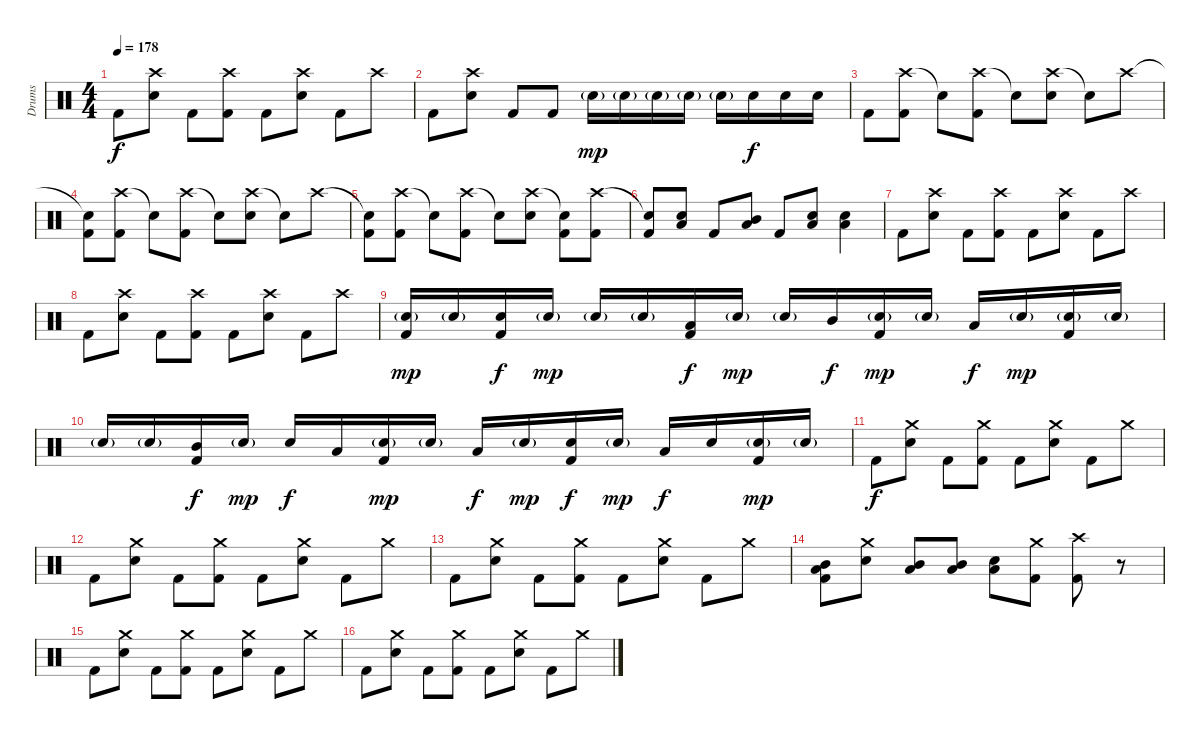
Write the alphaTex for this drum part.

\track ("Drums" "Drums") {instrument percussion}
\staff {score}
\articulation defaults
\ts (4 4)
\tempo 178
\clef neutral
\ks c "Kick (hit) 2".8{dy f}
("Crash high (hit)" "Electric Snare (hit)").8 "Kick (hit) 2".8 ("Crash high (hit)" "Kick (hit) 2").8 "Kick (hit) 2".8 ("Crash high (hit)" "Electric Snare (hit)").8 "Kick (hit) 2".8 "Crash high (hit)".8 |
"Kick (hit) 2".8 ("Crash high (hit)" "Electric Snare (hit)").8 "Kick (hit) 2".8 "Kick (hit) 2".8 "Electric Snare (hit)"{g}.16{dy mp} "Electric Snare (hit)"{g}.16 "Electric Snare (hit)"{g}.16 "Electric Snare (hit)"{g}.16 "Electric Snare (hit)"{g}.16 "Electric Snare (hit)".16{dy f} "Electric Snare (hit)".16 "Electric Snare (hit)".16 |
"Kick (hit) 2".8 ("Crash high (hit)" "Kick (hit) 2").8 "Snare (hit)"{t}.8 ("Crash high (hit)" "Kick (hit) 2").8 "Snare (hit)"{t}.8 ("Crash high (hit)" "Electric Snare (hit)").8 "Snare (hit)"{t}.8 "Crash high (hit)".8 |
("Snare (hit)"{t} "Kick (hit) 2").8 ("Crash high (hit)" "Kick (hit) 2").8 "Snare (hit)"{t}.8 ("Crash high (hit)" "Kick (hit) 2").8 "Snare (hit)"{t}.8 ("Crash high (hit)" "Electric Snare (hit)").8 "Snare (hit)"{t}.8 "Crash high (hit)".8 |
("Snare (hit)"{t} "Kick (hit) 2").8 ("Crash high (hit)" "Kick (hit) 2").8 "Snare (hit)"{t}.8 ("Crash high (hit)" "Kick (hit) 2").8 "Snare (hit)"{t}.8 ("Crash high (hit)" "Electric Snare (hit)").8 ("Snare (hit)"{t} "Kick (hit) 2").8 ("Crash high (hit)" "Kick (hit) 2").8 |
("Snare (hit)"{t} "Kick (hit) 2").8 ("Low Floor Tom (hit)" "Electric Snare (hit)").8 "Kick (hit) 2".8 ("Mid Tom (hit)" "Low Tom (hit)").8 "Kick (hit) 2".8 ("Low Floor Tom (hit)" "Electric Snare (hit)").8 ("Low Floor Tom (hit)" "Electric Snare (hit)").4 |
"Kick (hit) 2".8 ("Crash high (hit)" "Electric Snare (hit)").8 "Kick (hit) 2".8 ("Crash high (hit)" "Kick (hit) 2").8 "Kick (hit) 2".8 ("Crash high (hit)" "Electric Snare (hit)").8 "Kick (hit) 2".8 "Crash high (hit)".8 |
"Kick (hit) 2".8 ("Crash high (hit)" "Electric Snare (hit)").8 "Kick (hit) 2".8 ("Crash high (hit)" "Kick (hit) 2").8 "Kick (hit) 2".8 ("Crash high (hit)" "Electric Snare (hit)").8 "Kick (hit) 2".8 "Crash high (hit)".8 |
("Electric Snare (hit)"{g} "Kick (hit) 2").16{dy mp} "Electric Snare (hit)"{g}.16 ("Electric Snare (hit)" "Kick (hit) 2").16{dy f} "Electric Snare (hit)"{g}.16{dy mp} "Electric Snare (hit)"{g}.16 "Electric Snare (hit)"{g}.16 ("Low Tom (hit)" "Kick (hit) 2").16{dy f} "Electric Snare (hit)"{g}.16{dy mp} "Electric Snare (hit)"{g}.16 "Mid Tom (hit)".16{dy f} ("Electric Snare (hit)"{g} "Kick (hit) 2").16{dy mp} "Electric Snare (hit)"{g}.16 "Low Tom (hit)".16{dy f} "Electric Snare (hit)"{g}.16{dy mp} ("Electric Snare (hit)"{g} "Kick (hit) 2").16 "Electric Snare (hit)"{g}.16 |
"Electric Snare (hit)"{g}.16 "Electric Snare (hit)"{g}.16 ("Mid Tom (hit)" "Kick (hit) 2").16{dy f} "Electric Snare (hit)"{g}.16{dy mp} "Electric Snare (hit)".16{dy f} "Low Tom (hit)".16 ("Electric Snare (hit)"{g} "Kick (hit) 2").16{dy mp} "Electric Snare (hit)"{g}.16 "Low Floor Tom (hit)".16{dy f} "Electric Snare (hit)"{g}.16{dy mp} ("Electric Snare (hit)" "Kick (hit) 2").16{dy f} "Electric Snare (hit)"{g}.16{dy mp} "Low Tom (hit)".16{dy f} "Electric Snare (hit)".16 ("Electric Snare (hit)"{g} "Kick (hit) 2").16{dy mp} "Electric Snare (hit)"{g}.16 |
"Kick (hit) 2".8{dy f} ("Crash medium (hit)" "Electric Snare (hit)").8 "Kick (hit) 2".8 ("Crash medium (hit)" "Kick (hit) 2").8 "Kick (hit) 2".8 ("Crash medium (hit)" "Electric Snare (hit)").8 "Kick (hit) 2".8 "Crash medium (hit)".8 |
"Kick (hit) 2".8 ("Crash medium (hit)" "Electric Snare (hit)").8 "Kick (hit) 2".8 ("Crash medium (hit)" "Kick (hit) 2").8 "Kick (hit) 2".8 ("Crash medium (hit)" "Electric Snare (hit)").8 "Kick (hit) 2".8 "Crash medium (hit)".8 |
"Kick (hit) 2".8 ("Crash medium (hit)" "Electric Snare (hit)").8 "Kick (hit) 2".8 ("Crash medium (hit)" "Kick (hit) 2").8 "Kick (hit) 2".8 ("Crash medium (hit)" "Electric Snare (hit)").8 "Kick (hit) 2".8 "Crash medium (hit)".8 |
("Mid Tom (hit)" "Low Tom (hit)" "Kick (hit) 2").8 ("Crash medium (hit)" "Electric Snare (hit)").8 ("Mid Tom (hit)" "Low Tom (hit)").8 ("Mid Tom (hit)" "Low Tom (hit)").8 ("Low Floor Tom (hit)" "Electric Snare (hit)").8 ("Crash medium (hit)" "Kick (hit) 2").8 ("Crash high (hit)" "Kick (hit) 2").8 r.8 |
"Kick (hit) 2".8 ("Crash medium (hit)" "Electric Snare (hit)").8 "Kick (hit) 2".8 ("Crash medium (hit)" "Kick (hit) 2").8 "Kick (hit) 2".8 ("Crash medium (hit)" "Electric Snare (hit)").8 "Kick (hit) 2".8 "Crash medium (hit)".8 |
"Kick (hit) 2".8 ("Crash medium (hit)" "Electric Snare (hit)").8 "Kick (hit) 2".8 ("Crash medium (hit)" "Kick (hit) 2").8 "Kick (hit) 2".8 ("Crash medium (hit)" "Electric Snare (hit)").8 "Kick (hit) 2".8 "Crash medium (hit)".8
